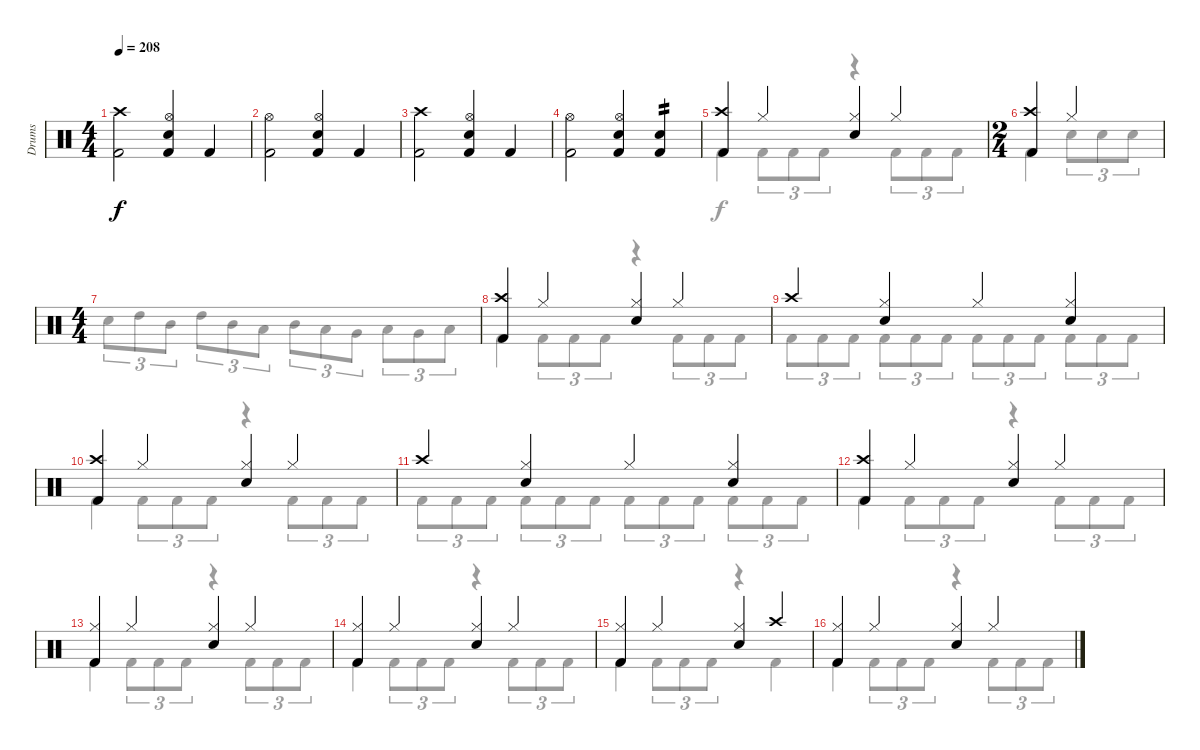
\track ("Drums" "Drums") {instrument percussion}
\staff {score}
\articulation defaults
\voice
\ts (4 4)
\tempo 208
\clef neutral
\ks c
("Crash high (hit)" "Kick (hit) 2").2{dy f} ("Hi-Hat (open)" "Electric Snare (hit)" "Kick (hit) 2").4 "Kick (hit) 2".4 |
("Hi-Hat (open)" "Kick (hit) 2").2 ("Hi-Hat (open)" "Electric Snare (hit)" "Kick (hit) 2").4 "Kick (hit) 2".4 |
("Crash high (hit)" "Kick (hit) 2").2 ("Hi-Hat (open)" "Electric Snare (hit)" "Kick (hit) 2").4 "Kick (hit) 2".4 |
("Hi-Hat (open)" "Kick (hit) 2").2 ("Hi-Hat (open)" "Electric Snare (hit)" "Kick (hit) 2").4 ("Electric Snare (hit)" "Kick (hit) 2").4{tp 2} |
("Crash high (hit)" "Kick (hit) 2").4 "Hi-Hat (closed)".4 ("Hi-Hat (closed)" "Electric Snare (hit)").4 "Hi-Hat (closed)".4 |
\ts (2 4)
("Crash high (hit)" "Kick (hit) 2").4 "Hi-Hat (closed)".4 |
\ts (4 4)
|
("Crash high (hit)" "Kick (hit) 2").4 "Hi-Hat (closed)".4 ("Hi-Hat (closed)" "Electric Snare (hit)").4 "Hi-Hat (closed)".4 |
"Crash high (hit)".4 ("Hi-Hat (closed)" "Electric Snare (hit)").4 "Hi-Hat (closed)".4 ("Hi-Hat (closed)" "Electric Snare (hit)").4 |
("Crash high (hit)" "Kick (hit) 2").4 "Hi-Hat (closed)".4 ("Hi-Hat (closed)" "Electric Snare (hit)").4 "Hi-Hat (closed)".4 |
"Crash high (hit)".4 ("Hi-Hat (closed)" "Electric Snare (hit)").4 "Hi-Hat (closed)".4 ("Hi-Hat (closed)" "Electric Snare (hit)").4 |
("Crash high (hit)" "Kick (hit) 2").4 "Hi-Hat (closed)".4 ("Hi-Hat (closed)" "Electric Snare (hit)").4 "Hi-Hat (closed)".4 |
("Hi-Hat (closed)" "Kick (hit) 2").4 "Hi-Hat (closed)".4 ("Hi-Hat (closed)" "Electric Snare (hit)").4 "Hi-Hat (closed)".4 |
("Hi-Hat (closed)" "Kick (hit) 2").4 "Hi-Hat (closed)".4 ("Hi-Hat (closed)" "Electric Snare (hit)").4 "Hi-Hat (closed)".4 |
("Hi-Hat (closed)" "Kick (hit) 2").4 "Hi-Hat (closed)".4 ("Hi-Hat (closed)" "Electric Snare (hit)").4 "Crash high (hit)".4 |
("Hi-Hat (closed)" "Kick (hit) 2").4 "Hi-Hat (closed)".4 ("Hi-Hat (closed)" "Electric Snare (hit)").4 "Hi-Hat (closed)".4
\voice
\clef neutral
\ottava regular
\simile none
\ks c
|
|
|
|
"Kick (hit) 2".4 "Kick (hit) 2".8{tu (3 2)} "Kick (hit) 2".8{tu (3 2)} "Kick (hit) 2".8{tu (3 2)} r.4 "Kick (hit) 2".8{tu (3 2)} "Kick (hit) 2".8{tu (3 2)} "Kick (hit) 2".8{tu (3 2)} |
"Kick (hit) 2".4 "Electric Snare (hit)".8{tu (3 2)} "Electric Snare (hit)".8{tu (3 2)} "Electric Snare (hit)".8{tu (3 2)} |
"Electric Snare (hit)".8{tu (3 2)} "High Tom (hit)".8{tu (3 2)} "Mid Tom (hit)".8{tu (3 2)} "High Tom (hit)".8{tu (3 2)} "Mid Tom (hit)".8{tu (3 2)} "Low Tom (hit)".8{tu (3 2)} "Mid Tom (hit)".8{tu (3 2)} "Low Tom (hit)".8{tu (3 2)} "Very Low Tom (hit)".8{tu (3 2)} "Low Tom (hit)".8{tu (3 2)} "Very Low Tom (hit)".8{tu (3 2)} "Low Floor Tom (hit)".8{tu (3 2)} |
"Kick (hit) 2".4 "Kick (hit) 2".8{tu (3 2)} "Kick (hit) 2".8{tu (3 2)} "Kick (hit) 2".8{tu (3 2)} r.4 "Kick (hit) 2".8{tu (3 2)} "Kick (hit) 2".8{tu (3 2)} "Kick (hit) 2".8{tu (3 2)} |
"Kick (hit) 2".8{tu (3 2)} "Kick (hit) 2".8{tu (3 2)} "Kick (hit) 2".8{tu (3 2)} "Kick (hit) 2".8{tu (3 2)} "Kick (hit) 2".8{tu (3 2)} "Kick (hit) 2".8{tu (3 2)} "Kick (hit) 2".8{tu (3 2)} "Kick (hit) 2".8{tu (3 2)} "Kick (hit) 2".8{tu (3 2)} "Kick (hit) 2".8{tu (3 2)} "Kick (hit) 2".8{tu (3 2)} "Kick (hit) 2".8{tu (3 2)} |
"Kick (hit) 2".4 "Kick (hit) 2".8{tu (3 2)} "Kick (hit) 2".8{tu (3 2)} "Kick (hit) 2".8{tu (3 2)} r.4 "Kick (hit) 2".8{tu (3 2)} "Kick (hit) 2".8{tu (3 2)} "Kick (hit) 2".8{tu (3 2)} |
"Kick (hit) 2".8{tu (3 2)} "Kick (hit) 2".8{tu (3 2)} "Kick (hit) 2".8{tu (3 2)} "Kick (hit) 2".8{tu (3 2)} "Kick (hit) 2".8{tu (3 2)} "Kick (hit) 2".8{tu (3 2)} "Kick (hit) 2".8{tu (3 2)} "Kick (hit) 2".8{tu (3 2)} "Kick (hit) 2".8{tu (3 2)} "Kick (hit) 2".8{tu (3 2)} "Kick (hit) 2".8{tu (3 2)} "Kick (hit) 2".8{tu (3 2)} |
"Kick (hit) 2".4 "Kick (hit) 2".8{tu (3 2)} "Kick (hit) 2".8{tu (3 2)} "Kick (hit) 2".8{tu (3 2)} r.4 "Kick (hit) 2".8{tu (3 2)} "Kick (hit) 2".8{tu (3 2)} "Kick (hit) 2".8{tu (3 2)} |
"Kick (hit) 2".4 "Kick (hit) 2".8{tu (3 2)} "Kick (hit) 2".8{tu (3 2)} "Kick (hit) 2".8{tu (3 2)} r.4 "Kick (hit) 2".8{tu (3 2)} "Kick (hit) 2".8{tu (3 2)} "Kick (hit) 2".8{tu (3 2)} |
"Kick (hit) 2".4 "Kick (hit) 2".8{tu (3 2)} "Kick (hit) 2".8{tu (3 2)} "Kick (hit) 2".8{tu (3 2)} r.4 "Kick (hit) 2".8{tu (3 2)} "Kick (hit) 2".8{tu (3 2)} "Kick (hit) 2".8{tu (3 2)} |
"Kick (hit) 2".4 "Kick (hit) 2".8{tu (3 2)} "Kick (hit) 2".8{tu (3 2)} "Kick (hit) 2".8{tu (3 2)} r.4 "Kick (hit) 2".4 |
"Kick (hit) 2".4 "Kick (hit) 2".8{tu (3 2)} "Kick (hit) 2".8{tu (3 2)} "Kick (hit) 2".8{tu (3 2)} r.4 "Kick (hit) 2".8{tu (3 2)} "Kick (hit) 2".8{tu (3 2)} "Kick (hit) 2".8{tu (3 2)}
